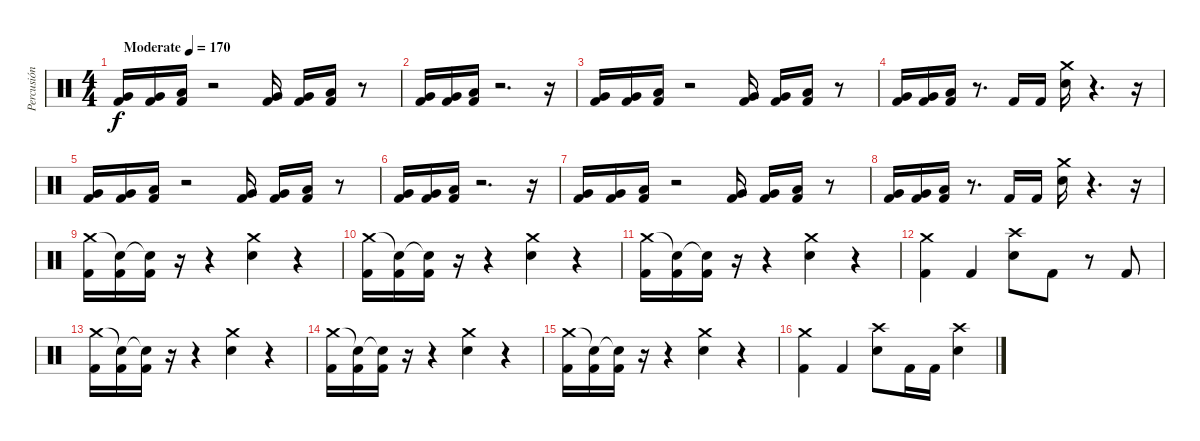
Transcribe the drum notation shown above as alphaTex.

\track ("Percusión" "Percusión") {instrument percussion}
\staff {score}
\articulation defaults
\ts (4 4)
\tempo (170 "Moderate")
\clef neutral
\ks c
("Very Low Tom (hit)" "Kick (hit) 2").16{dy f} ("Very Low Tom (hit)" "Kick (hit) 2").16 ("Low Floor Tom (hit)" "Kick (hit) 2").16 r.2 ("Very Low Tom (hit)" "Kick (hit) 2").16 ("Very Low Tom (hit)" "Kick (hit) 2").16 ("Low Floor Tom (hit)" "Kick (hit) 2").16 r.8 |
("Very Low Tom (hit)" "Kick (hit) 2").16 ("Very Low Tom (hit)" "Kick (hit) 2").16 ("Low Floor Tom (hit)" "Kick (hit) 2").16 r.2{d} r.16 |
("Very Low Tom (hit)" "Kick (hit) 2").16 ("Very Low Tom (hit)" "Kick (hit) 2").16 ("Low Floor Tom (hit)" "Kick (hit) 2").16 r.2 ("Very Low Tom (hit)" "Kick (hit) 2").16 ("Very Low Tom (hit)" "Kick (hit) 2").16 ("Low Floor Tom (hit)" "Kick (hit) 2").16 r.8 |
("Very Low Tom (hit)" "Kick (hit) 2").16 ("Very Low Tom (hit)" "Kick (hit) 2").16 ("Low Floor Tom (hit)" "Kick (hit) 2").16 r.8{d} "Kick (hit) 2".16 "Kick (hit) 2".16 ("Crash medium (hit)" "Electric Snare (hit)").16 r.4{d} r.16 |
("Very Low Tom (hit)" "Kick (hit) 2").16 ("Very Low Tom (hit)" "Kick (hit) 2").16 ("Low Floor Tom (hit)" "Kick (hit) 2").16 r.2 ("Very Low Tom (hit)" "Kick (hit) 2").16 ("Very Low Tom (hit)" "Kick (hit) 2").16 ("Low Floor Tom (hit)" "Kick (hit) 2").16 r.8 |
("Very Low Tom (hit)" "Kick (hit) 2").16 ("Very Low Tom (hit)" "Kick (hit) 2").16 ("Low Floor Tom (hit)" "Kick (hit) 2").16 r.2{d} r.16 |
("Very Low Tom (hit)" "Kick (hit) 2").16 ("Very Low Tom (hit)" "Kick (hit) 2").16 ("Low Floor Tom (hit)" "Kick (hit) 2").16 r.2 ("Very Low Tom (hit)" "Kick (hit) 2").16 ("Very Low Tom (hit)" "Kick (hit) 2").16 ("Low Floor Tom (hit)" "Kick (hit) 2").16 r.8 |
("Very Low Tom (hit)" "Kick (hit) 2").16 ("Very Low Tom (hit)" "Kick (hit) 2").16 ("Low Floor Tom (hit)" "Kick (hit) 2").16 r.8{d} "Kick (hit) 2".16 "Kick (hit) 2".16 ("Crash medium (hit)" "Electric Snare (hit)").16 r.4{d} r.16 |
("Crash medium (hit)" "Kick (hit) 2").16 ("Snare (hit)"{t} "Kick (hit) 2").16 ("Snare (hit)"{t} "Kick (hit) 2").16 r.16 r.4 ("Crash medium (hit)" "Electric Snare (hit)").4 r.4 |
("Crash medium (hit)" "Kick (hit) 2").16 ("Snare (hit)"{t} "Kick (hit) 2").16 ("Snare (hit)"{t} "Kick (hit) 2").16 r.16 r.4 ("Crash medium (hit)" "Electric Snare (hit)").4 r.4 |
("Crash medium (hit)" "Kick (hit) 2").16 ("Snare (hit)"{t} "Kick (hit) 2").16 ("Snare (hit)"{t} "Kick (hit) 2").16 r.16 r.4 ("Crash medium (hit)" "Electric Snare (hit)").4 r.4 |
("Crash medium (hit)" "Kick (hit) 2").4 "Kick (hit) 2".4 ("Crash high (hit)" "Electric Snare (hit)").8 "Kick (hit) 2".8 r.8 "Kick (hit) 2".8 |
("Crash medium (hit)" "Kick (hit) 2").16 ("Snare (hit)"{t} "Kick (hit) 2").16 ("Snare (hit)"{t} "Kick (hit) 2").16 r.16 r.4 ("Crash medium (hit)" "Electric Snare (hit)").4 r.4 |
("Crash medium (hit)" "Kick (hit) 2").16 ("Snare (hit)"{t} "Kick (hit) 2").16 ("Snare (hit)"{t} "Kick (hit) 2").16 r.16 r.4 ("Crash medium (hit)" "Electric Snare (hit)").4 r.4 |
("Crash medium (hit)" "Kick (hit) 2").16 ("Snare (hit)"{t} "Kick (hit) 2").16 ("Snare (hit)"{t} "Kick (hit) 2").16 r.16 r.4 ("Crash medium (hit)" "Electric Snare (hit)").4 r.4 |
("Crash medium (hit)" "Kick (hit) 2").4 "Kick (hit) 2".4 ("Crash high (hit)" "Electric Snare (hit)").8 "Kick (hit) 2".16 "Kick (hit) 2".16 ("Crash high (hit)" "Electric Snare (hit)").4
